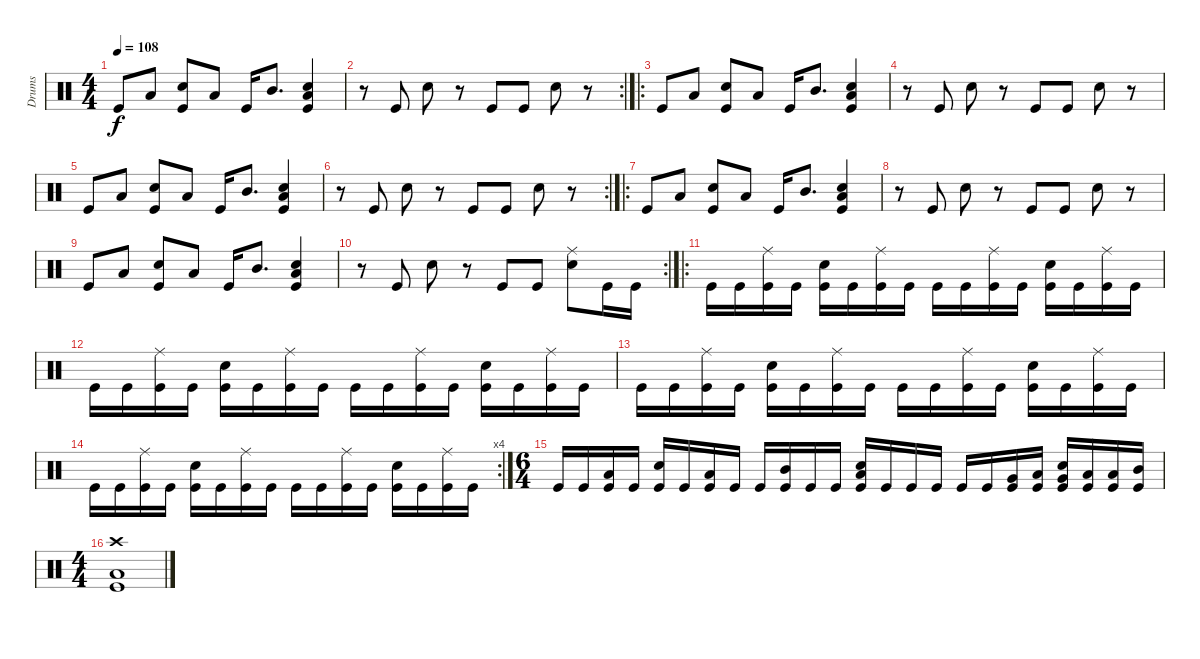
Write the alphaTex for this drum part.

\track ("Drums" "Drums") {instrument percussion}
\staff {score}
\articulation defaults
\ts (4 4)
\tempo 108
\clef neutral
\ks c "Kick (hit)".8{dy f} "Low Tom (hit)".8
("Snare (hit) 2" "Kick (hit)").8 "Low Tom (hit)".8 "Kick (hit)".16 "Mid Tom (hit)".8{d} ("Low Tom (hit)" "Snare (hit) 2" "Kick (hit)").4 |
\rc 2
r.8 "Kick (hit)".8 "Snare (hit) 2".8 r.8 "Kick (hit)".8 "Kick (hit)".8 "Snare (hit) 2".8 r.8 |
\ro "Kick (hit)".8 "Low Tom (hit)".8
("Snare (hit) 2" "Kick (hit)").8 "Low Tom (hit)".8 "Kick (hit)".16 "Mid Tom (hit)".8{d} ("Low Tom (hit)" "Snare (hit) 2" "Kick (hit)").4 |
r.8 "Kick (hit)".8 "Snare (hit) 2".8 r.8 "Kick (hit)".8 "Kick (hit)".8 "Snare (hit) 2".8 r.8 |
"Kick (hit)".8 "Low Tom (hit)".8 ("Snare (hit) 2" "Kick (hit)").8 "Low Tom (hit)".8 "Kick (hit)".16 "Mid Tom (hit)".8{d} ("Low Tom (hit)" "Snare (hit) 2" "Kick (hit)").4 |
\rc 2
r.8 "Kick (hit)".8 "Snare (hit) 2".8 r.8 "Kick (hit)".8 "Kick (hit)".8 "Snare (hit) 2".8 r.8 |
\ro "Kick (hit)".8 "Low Tom (hit)".8
("Snare (hit) 2" "Kick (hit)").8 "Low Tom (hit)".8 "Kick (hit)".16 "Mid Tom (hit)".8{d} ("Low Tom (hit)" "Snare (hit) 2" "Kick (hit)").4 |
r.8 "Kick (hit)".8 "Snare (hit) 2".8 r.8 "Kick (hit)".8 "Kick (hit)".8 "Snare (hit) 2".8 r.8 |
"Kick (hit)".8 "Low Tom (hit)".8 ("Snare (hit) 2" "Kick (hit)").8 "Low Tom (hit)".8 "Kick (hit)".16 "Mid Tom (hit)".8{d} ("Low Tom (hit)" "Snare (hit) 2" "Kick (hit)").4 |
\rc 2
r.8 "Kick (hit)".8 "Snare (hit) 2".8 r.8 "Kick (hit)".8 "Kick (hit)".8 ("Ride (middle)" "Snare (hit) 2").8 "Kick (hit)".16 "Kick (hit)".16 |
\ro "Kick (hit)".16 "Kick (hit)".16
("Ride (middle)" "Kick (hit)").16 "Kick (hit)".16 ("Snare (hit) 2" "Kick (hit)").16 "Kick (hit)".16 ("Ride (middle)" "Kick (hit)").16 "Kick (hit)".16 "Kick (hit)".16 "Kick (hit)".16 ("Ride (middle)" "Kick (hit)").16 "Kick (hit)".16 ("Snare (hit) 2" "Kick (hit)").16 "Kick (hit)".16 ("Ride (middle)" "Kick (hit)").16 "Kick (hit)".16 |
"Kick (hit)".16 "Kick (hit)".16 ("Ride (middle)" "Kick (hit)").16 "Kick (hit)".16 ("Snare (hit) 2" "Kick (hit)").16 "Kick (hit)".16 ("Ride (middle)" "Kick (hit)").16 "Kick (hit)".16 "Kick (hit)".16 "Kick (hit)".16 ("Ride (middle)" "Kick (hit)").16 "Kick (hit)".16 ("Snare (hit) 2" "Kick (hit)").16 "Kick (hit)".16 ("Ride (middle)" "Kick (hit)").16 "Kick (hit)".16 |
"Kick (hit)".16 "Kick (hit)".16 ("Ride (middle)" "Kick (hit)").16 "Kick (hit)".16 ("Snare (hit) 2" "Kick (hit)").16 "Kick (hit)".16 ("Ride (middle)" "Kick (hit)").16 "Kick (hit)".16 "Kick (hit)".16 "Kick (hit)".16 ("Ride (middle)" "Kick (hit)").16 "Kick (hit)".16 ("Snare (hit) 2" "Kick (hit)").16 "Kick (hit)".16 ("Ride (middle)" "Kick (hit)").16 "Kick (hit)".16 |
\rc 4 "Kick (hit)".16 "Kick (hit)".16
("Ride (middle)" "Kick (hit)").16 "Kick (hit)".16 ("Snare (hit) 2" "Kick (hit)").16 "Kick (hit)".16 ("Ride (middle)" "Kick (hit)").16 "Kick (hit)".16 "Kick (hit)".16 "Kick (hit)".16 ("Ride (middle)" "Kick (hit)").16 "Kick (hit)".16 ("Snare (hit) 2" "Kick (hit)").16 "Kick (hit)".16 ("Ride (middle)" "Kick (hit)").16 "Kick (hit)".16 |
\ts (6 4)
"Kick (hit)".16 "Kick (hit)".16 ("Low Tom (hit)" "Kick (hit)").16 "Kick (hit)".16 ("Snare (hit) 2" "Kick (hit)").16 "Kick (hit)".16 ("Low Tom (hit)" "Kick (hit)").16 "Kick (hit)".16 "Kick (hit)".16 ("Mid Tom (hit)" "Kick (hit)").16 "Kick (hit)".16 "Kick (hit)".16 ("Low Tom (hit)" "Snare (hit) 2" "Kick (hit)").16 "Kick (hit)".16 "Kick (hit)".16 "Kick (hit)".16 "Kick (hit)".16 "Kick (hit)".16 ("Very Low Tom (hit)" "Kick (hit)").16 ("Low Tom (hit)" "Kick (hit)").16 ("Very Low Tom (hit)" "Snare (hit) 2" "Kick (hit)").16 ("Low Floor Tom (hit)" "Kick (hit)").16 ("Low Tom (hit)" "Kick (hit)").16 ("Mid Tom (hit)" "Kick (hit)").16 |
\ts (4 4)
("Crash high (hit)" "Low Floor Tom (hit)" "Kick (hit)").1
